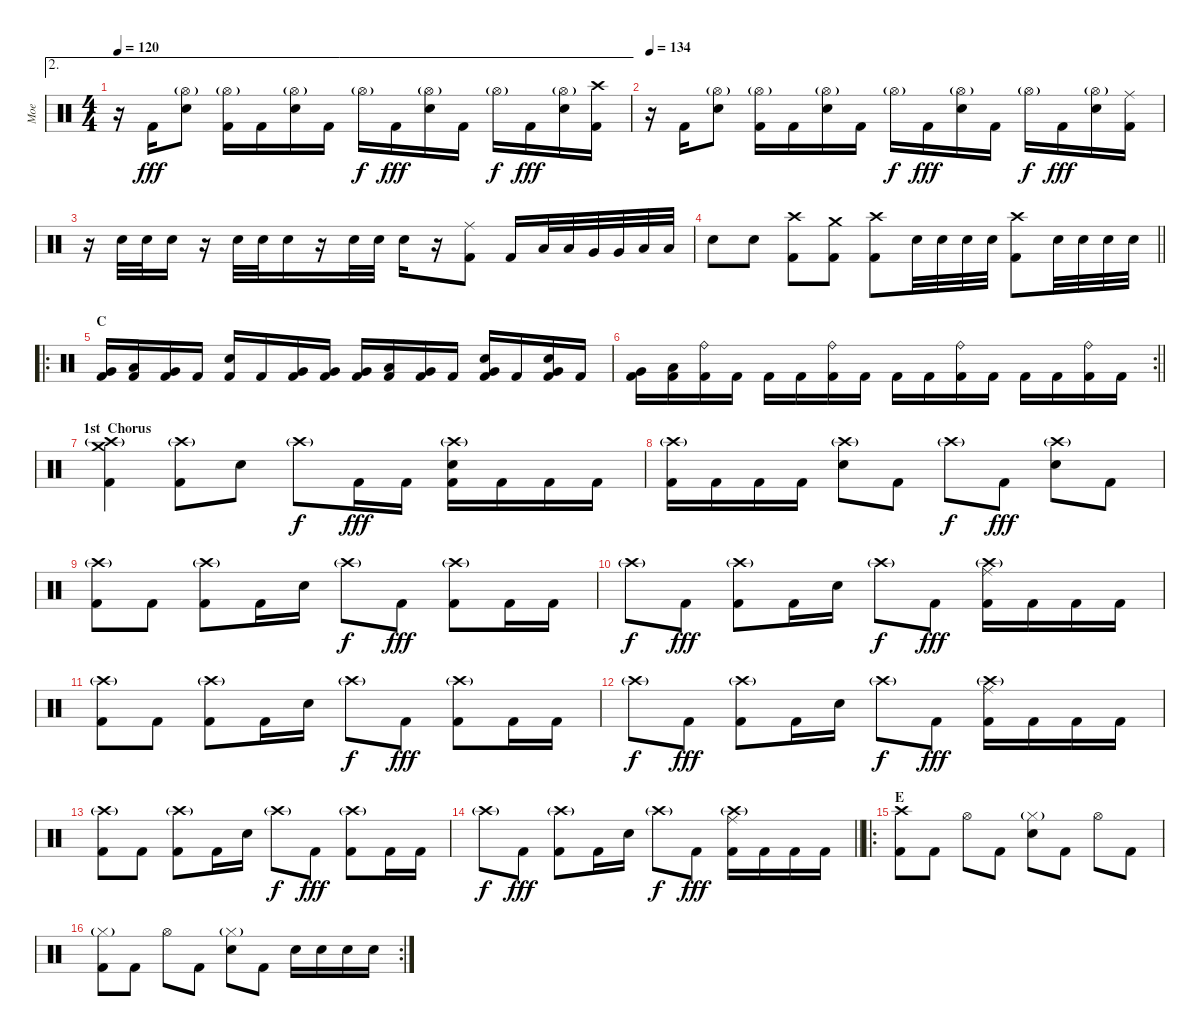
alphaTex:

\track ("Moe" "Moe") {instrument percussion}
\staff {score}
\articulation defaults
\ae 2
\ts (4 4)
\tempo 120
\clef neutral
\ks c
r.16{dy fff} "Kick (hit) 2".16 ("Hi-Hat (open)"{g} "Electric Snare (hit)").8 ("Hi-Hat (open)"{g} "Kick (hit) 2").16 "Kick (hit) 2".16 ("Hi-Hat (open)"{g} "Electric Snare (hit)").16 "Kick (hit) 2".16 "Hi-Hat (open)"{g}.16{dy f} "Kick (hit) 2".16{dy fff} ("Hi-Hat (open)"{g} "Electric Snare (hit)").16 "Kick (hit) 2".16 "Hi-Hat (open)"{g}.16{dy f} "Kick (hit) 2".16{dy fff} ("Hi-Hat (open)"{g} "Electric Snare (hit)").16 ("Crash high (hit)" "Kick (hit) 2").16 |
\tempo 134
r.16 "Kick (hit) 2".16 ("Hi-Hat (open)"{g} "Electric Snare (hit)").8 ("Hi-Hat (open)"{g} "Kick (hit) 2").16 "Kick (hit) 2".16 ("Hi-Hat (open)"{g} "Electric Snare (hit)").16 "Kick (hit) 2".16 "Hi-Hat (open)"{g}.16{dy f} "Kick (hit) 2".16{dy fff} ("Hi-Hat (open)"{g} "Electric Snare (hit)").16 "Kick (hit) 2".16 "Hi-Hat (open)"{g}.16{dy f} "Kick (hit) 2".16{dy fff} ("Hi-Hat (open)"{g} "Electric Snare (hit)").16 ("Ride (middle)" "Kick (hit) 2").16 |
r.16 "Electric Snare (hit)".32 "Electric Snare (hit)".32 "Electric Snare (hit)".16 r.16 "Electric Snare (hit)".32 "Electric Snare (hit)".32 "Electric Snare (hit)".16 r.16 "Electric Snare (hit)".32 "Electric Snare (hit)".32 "Electric Snare (hit)".16 r.16 ("Ride (middle)" "Kick (hit) 2").8 "Kick (hit) 2".16 "Low Tom (hit)".32 "Low Tom (hit)".32 "Very Low Tom (hit)".32 "Very Low Tom (hit)".32 "Low Floor Tom (hit)".32 "Low Floor Tom (hit)".32 |
\barLineRight lightlight "Electric Snare (hit)".8 "Electric Snare (hit)".8
("Crash high (hit)" "Kick (hit) 2").8 ("Crash medium (hit)" "Kick (hit) 2").8 ("Crash high (hit)" "Kick (hit) 2").8 "Electric Snare (hit)".32 "Electric Snare (hit)".32 "Electric Snare (hit)".32 "Electric Snare (hit)".32 ("Crash high (hit)" "Kick (hit) 2").8 "Electric Snare (hit)".32 "Electric Snare (hit)".32 "Electric Snare (hit)".32 "Electric Snare (hit)".32 |
\ro
\section ("" "C")
("Very Low Tom (hit)" "Kick (hit) 2").16 ("Low Tom (hit)" "Kick (hit) 2").16 ("Very Low Tom (hit)" "Kick (hit) 2").16 "Kick (hit) 2".16 ("Electric Snare (hit)" "Kick (hit) 2").16 "Kick (hit) 2".16 ("Very Low Tom (hit)" "Kick (hit) 2").16 ("Very Low Tom (hit)" "Kick (hit) 2").16 ("Very Low Tom (hit)" "Kick (hit) 2").16 ("Low Tom (hit)" "Kick (hit) 2").16 ("Very Low Tom (hit)" "Kick (hit) 2").16 "Kick (hit) 2".16 ("Electric Snare (hit)" "Very Low Tom (hit)" "Kick (hit) 2").16 "Kick (hit) 2".16 ("Electric Snare (hit)" "Very Low Tom (hit)" "Kick (hit) 2").16 "Kick (hit) 2".16 |
\rc 2
\barLineRight lightlight
("Very Low Tom (hit)" "Kick (hit) 2").16 ("Low Tom (hit)" "Kick (hit) 2").16 ("Ride (bell)" "Kick (hit) 2").16 "Kick (hit) 2".16 "Kick (hit) 2".16 "Kick (hit) 2".16 ("Ride (bell)" "Kick (hit) 2").16 "Kick (hit) 2".16 "Kick (hit) 2".16 "Kick (hit) 2".16 ("Ride (bell)" "Kick (hit) 2").16 "Kick (hit) 2".16 "Kick (hit) 2".16 "Kick (hit) 2".16 ("Ride (bell)" "Kick (hit) 2").16 "Kick (hit) 2".16 |
\section ("" "1st  Chorus")
("Crash high (hit)"{g} "Crash medium (hit)" "Kick (hit) 2").4 ("Crash high (hit)"{g} "Kick (hit) 2").8 "Electric Snare (hit)".8 "Crash high (hit)"{g}.8{dy f} "Kick (hit) 2".16{dy fff} "Kick (hit) 2".16 ("Crash high (hit)"{g} "Electric Snare (hit)" "Kick (hit) 2").16 "Kick (hit) 2".16 "Kick (hit) 2".16 "Kick (hit) 2".16 |
("Crash high (hit)"{g} "Kick (hit) 2").16 "Kick (hit) 2".16 "Kick (hit) 2".16 "Kick (hit) 2".16 ("Crash high (hit)"{g} "Electric Snare (hit)").8 "Kick (hit) 2".8 "Crash high (hit)"{g}.8{dy f} "Kick (hit) 2".8{dy fff} ("Crash high (hit)"{g} "Electric Snare (hit)").8 "Kick (hit) 2".8 |
("Crash high (hit)"{g} "Kick (hit) 2").8 "Kick (hit) 2".8 ("Crash high (hit)"{g} "Kick (hit) 2").8 "Kick (hit) 2".16 "Electric Snare (hit)".16 "Crash high (hit)"{g}.8{dy f} "Kick (hit) 2".8{dy fff} ("Crash high (hit)"{g} "Kick (hit) 2").8 "Kick (hit) 2".16 "Kick (hit) 2".16 |
"Crash high (hit)"{g}.8{dy f} "Kick (hit) 2".8{dy fff} ("Crash high (hit)"{g} "Kick (hit) 2").8 "Kick (hit) 2".16 "Electric Snare (hit)".16 "Crash high (hit)"{g}.8{dy f} "Kick (hit) 2".8{dy fff} ("Crash high (hit)"{g} "Ride (middle)" "Kick (hit) 2").16 "Kick (hit) 2".16 "Kick (hit) 2".16 "Kick (hit) 2".16 |
("Crash high (hit)"{g} "Kick (hit) 2").8 "Kick (hit) 2".8 ("Crash high (hit)"{g} "Kick (hit) 2").8 "Kick (hit) 2".16 "Electric Snare (hit)".16 "Crash high (hit)"{g}.8{dy f} "Kick (hit) 2".8{dy fff} ("Crash high (hit)"{g} "Kick (hit) 2").8 "Kick (hit) 2".16 "Kick (hit) 2".16 |
"Crash high (hit)"{g}.8{dy f} "Kick (hit) 2".8{dy fff} ("Crash high (hit)"{g} "Kick (hit) 2").8 "Kick (hit) 2".16 "Electric Snare (hit)".16 "Crash high (hit)"{g}.8{dy f} "Kick (hit) 2".8{dy fff} ("Crash high (hit)"{g} "Ride (middle)" "Kick (hit) 2").16 "Kick (hit) 2".16 "Kick (hit) 2".16 "Kick (hit) 2".16 |
("Crash high (hit)"{g} "Kick (hit) 2").8 "Kick (hit) 2".8 ("Crash high (hit)"{g} "Kick (hit) 2").8 "Kick (hit) 2".16 "Electric Snare (hit)".16 "Crash high (hit)"{g}.8{dy f} "Kick (hit) 2".8{dy fff} ("Crash high (hit)"{g} "Kick (hit) 2").8 "Kick (hit) 2".16 "Kick (hit) 2".16 |
\barLineRight lightlight "Crash high (hit)"{g}.8{dy f} "Kick (hit) 2".8{dy fff}
("Crash high (hit)"{g} "Kick (hit) 2").8 "Kick (hit) 2".16 "Electric Snare (hit)".16 "Crash high (hit)"{g}.8{dy f} "Kick (hit) 2".8{dy fff} ("Crash high (hit)"{g} "Ride (middle)" "Kick (hit) 2").16 "Kick (hit) 2".16 "Kick (hit) 2".16 "Kick (hit) 2".16 |
\ro
\section ("" "E")
("Crash high (hit)" "Kick (hit) 2").8 "Kick (hit) 2".8 "Hi-Hat (open)".8 "Kick (hit) 2".8 ("Hi-Hat (closed)"{g} "Electric Snare (hit)").8 "Kick (hit) 2".8 "Hi-Hat (open)".8 "Kick (hit) 2".8 |
\rc 2
("Hi-Hat (closed)"{g} "Kick (hit) 2").8 "Kick (hit) 2".8 "Hi-Hat (open)".8 "Kick (hit) 2".8 ("Hi-Hat (closed)"{g} "Electric Snare (hit)").8 "Kick (hit) 2".8 "Electric Snare (hit)".16 "Electric Snare (hit)".16 "Electric Snare (hit)".16 "Electric Snare (hit)".16
